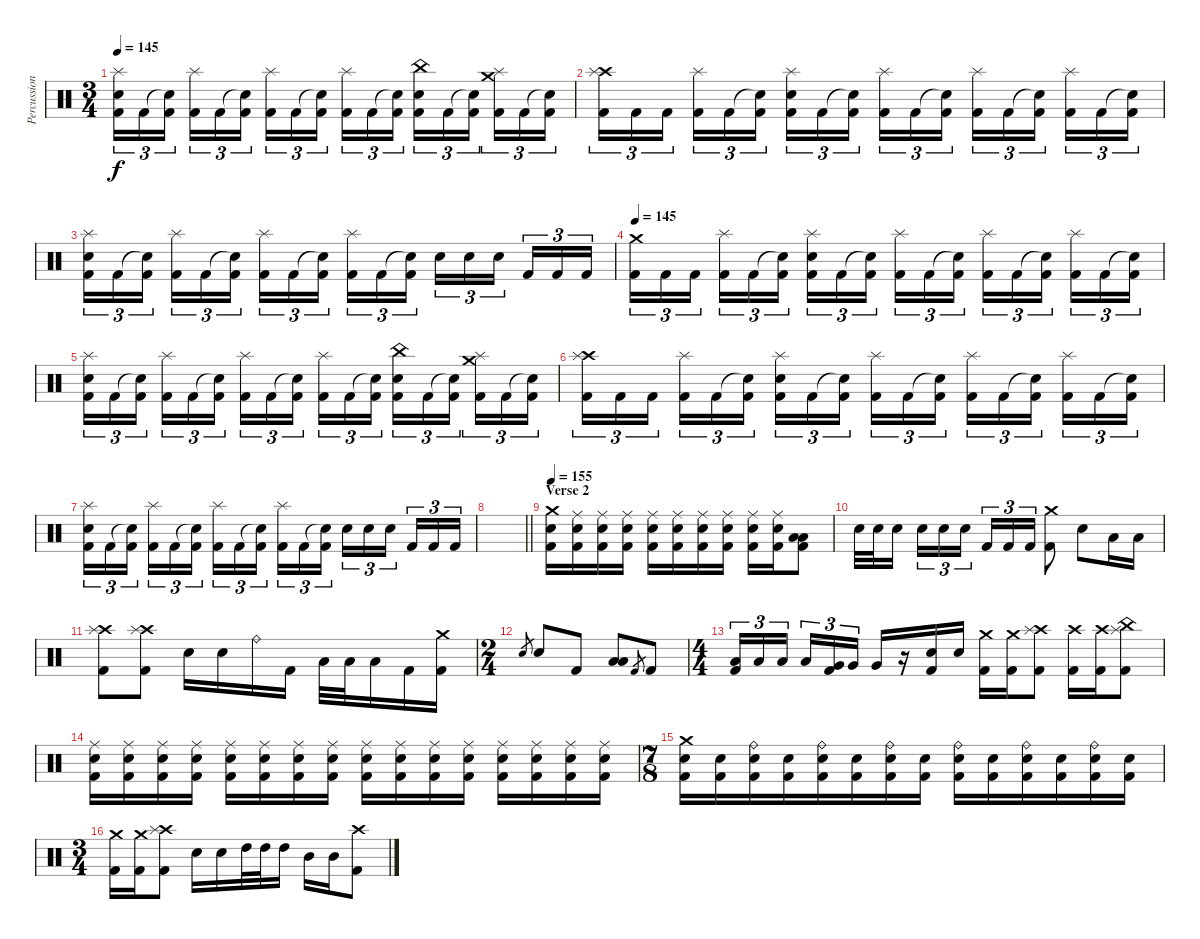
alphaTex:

\track ("Percussion" "Percussion") {instrument percussion}
\staff {score}
\articulation defaults
\ts (3 4)
\tempo 145
\clef neutral
\ks c
("Splash (hit)" "Electric Snare (hit)" "Kick (hit) 2").16{tu (3 2) dy f} "Kick (hit) 2".16{tu (3 2)} ("Snare (hit)"{t} "Kick (hit) 2").16{tu (3 2)} ("Splash (hit)" "Kick (hit) 2").16{tu (3 2)} "Kick (hit) 2".16{tu (3 2)} ("Snare (hit)"{t} "Kick (hit) 2").16{tu (3 2)} ("Splash (hit)" "Kick (hit) 2").16{tu (3 2)} "Kick (hit) 2".16{tu (3 2)} ("Snare (hit)"{t} "Kick (hit) 2").16{tu (3 2)} ("Splash (hit)" "Kick (hit) 2").16{tu (3 2)} "Kick (hit) 2".16{tu (3 2)} ("Snare (hit)"{t} "Kick (hit) 2").16{tu (3 2)} ("China (hit)" "Electric Snare (hit)" "Kick (hit) 2").16{tu (3 2)} "Kick (hit) 2".16{tu (3 2)} ("Snare (hit)"{t} "Kick (hit) 2").16{tu (3 2)} ("Crash medium (hit)" "Splash (hit)" "Kick (hit) 2").16{tu (3 2)} "Kick (hit) 2".16{tu (3 2)} ("Snare (hit)"{t} "Kick (hit) 2").16{tu (3 2)} |
("Crash high (hit)" "Splash (hit)" "Kick (hit) 2").16{tu (3 2)} "Kick (hit) 2".16{tu (3 2)} "Kick (hit) 2".16{tu (3 2)} ("Splash (hit)" "Kick (hit) 2").16{tu (3 2)} "Kick (hit) 2".16{tu (3 2)} ("Snare (hit)"{t} "Kick (hit) 2").16{tu (3 2)} ("Splash (hit)" "Electric Snare (hit)" "Kick (hit) 2").16{tu (3 2)} "Kick (hit) 2".16{tu (3 2)} ("Snare (hit)"{t} "Kick (hit) 2").16{tu (3 2)} ("Splash (hit)" "Kick (hit) 2").16{tu (3 2)} "Kick (hit) 2".16{tu (3 2)} ("Snare (hit)"{t} "Kick (hit) 2").16{tu (3 2)} ("Splash (hit)" "Kick (hit) 2").16{tu (3 2)} "Kick (hit) 2".16{tu (3 2)} ("Snare (hit)"{t} "Kick (hit) 2").16{tu (3 2)} ("Splash (hit)" "Kick (hit) 2").16{tu (3 2)} "Kick (hit) 2".16{tu (3 2)} ("Snare (hit)"{t} "Kick (hit) 2").16{tu (3 2)} |
("Splash (hit)" "Electric Snare (hit)" "Kick (hit) 2").16{tu (3 2)} "Kick (hit) 2".16{tu (3 2)} ("Snare (hit)"{t} "Kick (hit) 2").16{tu (3 2)} ("Splash (hit)" "Kick (hit) 2").16{tu (3 2)} "Kick (hit) 2".16{tu (3 2)} ("Snare (hit)"{t} "Kick (hit) 2").16{tu (3 2)} ("Splash (hit)" "Kick (hit) 2").16{tu (3 2)} "Kick (hit) 2".16{tu (3 2)} ("Snare (hit)"{t} "Kick (hit) 2").16{tu (3 2)} ("Splash (hit)" "Kick (hit) 2").16{tu (3 2)} "Kick (hit) 2".16{tu (3 2)} ("Snare (hit)"{t} "Kick (hit) 2").16{tu (3 2)} "Electric Snare (hit)".16{tu (3 2)} "Electric Snare (hit)".16{tu (3 2)} "Electric Snare (hit)".16{tu (3 2)} "Kick (hit) 2".16{tu (3 2)} "Kick (hit) 2".16{tu (3 2)} "Kick (hit) 2".16{tu (3 2)} |
\tempo 145
("Crash medium (hit)" "Kick (hit) 2").16{tu (3 2)} "Kick (hit) 2".16{tu (3 2)} "Kick (hit) 2".16{tu (3 2)} ("Splash (hit)" "Kick (hit) 2").16{tu (3 2)} "Kick (hit) 2".16{tu (3 2)} ("Snare (hit)"{t} "Kick (hit) 2").16{tu (3 2)} ("Splash (hit)" "Electric Snare (hit)" "Kick (hit) 2").16{tu (3 2)} "Kick (hit) 2".16{tu (3 2)} ("Snare (hit)"{t} "Kick (hit) 2").16{tu (3 2)} ("Splash (hit)" "Kick (hit) 2").16{tu (3 2)} "Kick (hit) 2".16{tu (3 2)} ("Snare (hit)"{t} "Kick (hit) 2").16{tu (3 2)} ("Splash (hit)" "Kick (hit) 2").16{tu (3 2)} "Kick (hit) 2".16{tu (3 2)} ("Snare (hit)"{t} "Kick (hit) 2").16{tu (3 2)} ("Splash (hit)" "Kick (hit) 2").16{tu (3 2)} "Kick (hit) 2".16{tu (3 2)} ("Snare (hit)"{t} "Kick (hit) 2").16{tu (3 2)} |
("Splash (hit)" "Electric Snare (hit)" "Kick (hit) 2").16{tu (3 2)} "Kick (hit) 2".16{tu (3 2)} ("Snare (hit)"{t} "Kick (hit) 2").16{tu (3 2)} ("Splash (hit)" "Kick (hit) 2").16{tu (3 2)} "Kick (hit) 2".16{tu (3 2)} ("Snare (hit)"{t} "Kick (hit) 2").16{tu (3 2)} ("Splash (hit)" "Kick (hit) 2").16{tu (3 2)} "Kick (hit) 2".16{tu (3 2)} ("Snare (hit)"{t} "Kick (hit) 2").16{tu (3 2)} ("Splash (hit)" "Kick (hit) 2").16{tu (3 2)} "Kick (hit) 2".16{tu (3 2)} ("Snare (hit)"{t} "Kick (hit) 2").16{tu (3 2)} ("China (hit)" "Electric Snare (hit)" "Kick (hit) 2").16{tu (3 2)} "Kick (hit) 2".16{tu (3 2)} ("Snare (hit)"{t} "Kick (hit) 2").16{tu (3 2)} ("Crash medium (hit)" "Splash (hit)" "Kick (hit) 2").16{tu (3 2)} "Kick (hit) 2".16{tu (3 2)} ("Snare (hit)"{t} "Kick (hit) 2").16{tu (3 2)} |
("Crash high (hit)" "Splash (hit)" "Kick (hit) 2").16{tu (3 2)} "Kick (hit) 2".16{tu (3 2)} "Kick (hit) 2".16{tu (3 2)} ("Splash (hit)" "Kick (hit) 2").16{tu (3 2)} "Kick (hit) 2".16{tu (3 2)} ("Snare (hit)"{t} "Kick (hit) 2").16{tu (3 2)} ("Splash (hit)" "Electric Snare (hit)" "Kick (hit) 2").16{tu (3 2)} "Kick (hit) 2".16{tu (3 2)} ("Snare (hit)"{t} "Kick (hit) 2").16{tu (3 2)} ("Splash (hit)" "Kick (hit) 2").16{tu (3 2)} "Kick (hit) 2".16{tu (3 2)} ("Snare (hit)"{t} "Kick (hit) 2").16{tu (3 2)} ("Splash (hit)" "Kick (hit) 2").16{tu (3 2)} "Kick (hit) 2".16{tu (3 2)} ("Snare (hit)"{t} "Kick (hit) 2").16{tu (3 2)} ("Splash (hit)" "Kick (hit) 2").16{tu (3 2)} "Kick (hit) 2".16{tu (3 2)} ("Snare (hit)"{t} "Kick (hit) 2").16{tu (3 2)} |
("Splash (hit)" "Electric Snare (hit)" "Kick (hit) 2").16{tu (3 2)} "Kick (hit) 2".16{tu (3 2)} ("Snare (hit)"{t} "Kick (hit) 2").16{tu (3 2)} ("Splash (hit)" "Kick (hit) 2").16{tu (3 2)} "Kick (hit) 2".16{tu (3 2)} ("Snare (hit)"{t} "Kick (hit) 2").16{tu (3 2)} ("Splash (hit)" "Kick (hit) 2").16{tu (3 2)} "Kick (hit) 2".16{tu (3 2)} ("Snare (hit)"{t} "Kick (hit) 2").16{tu (3 2)} ("Splash (hit)" "Kick (hit) 2").16{tu (3 2)} "Kick (hit) 2".16{tu (3 2)} ("Snare (hit)"{t} "Kick (hit) 2").16{tu (3 2)} "Electric Snare (hit)".16{tu (3 2)} "Electric Snare (hit)".16{tu (3 2)} "Electric Snare (hit)".16{tu (3 2)} "Kick (hit) 2".16{tu (3 2)} "Kick (hit) 2".16{tu (3 2)} "Kick (hit) 2".16{tu (3 2)} |
\barLineRight lightlight
|
\section ("" "Verse 2")
\tempo 155
("Crash medium (hit)" "Electric Snare (hit)" "Kick (hit) 2").16 ("Ride (middle)" "Electric Snare (hit)" "Kick (hit) 2").16 ("Ride (middle)" "Electric Snare (hit)" "Kick (hit) 2").16 ("Ride (middle)" "Electric Snare (hit)" "Kick (hit) 2").16 ("Ride (middle)" "Electric Snare (hit)" "Kick (hit) 2").16 ("Ride (middle)" "Electric Snare (hit)" "Kick (hit) 2").16 ("Ride (middle)" "Electric Snare (hit)" "Kick (hit) 2").16 ("Ride (middle)" "Electric Snare (hit)" "Kick (hit) 2").16 ("Ride (middle)" "Electric Snare (hit)" "Kick (hit) 2").16 ("Ride (middle)" "Electric Snare (hit)" "Kick (hit) 2").16 ("Low Tom (hit)" "Low Floor Tom (hit)" "Kick (hit) 2").8 |
"Electric Snare (hit)".32 "Electric Snare (hit)".32 "Electric Snare (hit)".16 "Electric Snare (hit)".16{tu (3 2)} "Electric Snare (hit)".16{tu (3 2)} "Electric Snare (hit)".16{tu (3 2)} "Kick (hit) 2".16{tu (3 2)} "Kick (hit) 2".16{tu (3 2)} "Kick (hit) 2".16{tu (3 2)} ("Crash medium (hit)" "Kick (hit) 2").8 "Electric Snare (hit)".8 "Low Tom (hit)".16 "Low Tom (hit)".16 |
("Crash high (hit)" "Splash (hit)" "Kick (hit) 2").8 ("Crash high (hit)" "Splash (hit)" "Kick (hit) 2").8 "Electric Snare (hit)".16 "Electric Snare (hit)".16 "Ride (bell)".16 "Kick (hit) 2".16 "Low Tom (hit)".32 "Low Tom (hit)".32 "Low Tom (hit)".16 "Kick (hit) 2".16 ("Crash medium (hit)" "Kick (hit) 2").16 |
\ts (2 4)
"Electric Snare (hit)".8{gr} "Electric Snare (hit)".8 "Kick (hit) 2".8 ("Low Tom (hit)" "Low Floor Tom (hit)").8 "Kick (hit) 2".8{gr} "Kick (hit) 2".8 |
\ts (4 4)
("Low Tom (hit)" "Kick (hit) 2").16{tu (3 2)} "Low Tom (hit)".16{tu (3 2)} "Low Tom (hit)".16{tu (3 2)} "Low Tom (hit)".16{tu (3 2)} ("Very Low Tom (hit)" "Kick (hit) 2").16{tu (3 2)} "Very Low Tom (hit)".16{tu (3 2)} "Very Low Tom (hit)".16 r.16 ("Electric Snare (hit)" "Kick (hit) 2").16 "Electric Snare (hit)".16 ("Crash medium (hit)" "Kick (hit) 2").16 ("Crash medium (hit)" "Kick (hit) 2").16 ("Crash high (hit)" "Splash (hit)" "Kick (hit) 2").8 ("Crash high (hit)" "Kick (hit) 2").16 ("Crash high (hit)" "Kick (hit) 2").16 ("China (hit)" "Splash (hit)" "Kick (hit) 2").8 |
("Ride (middle)" "Electric Snare (hit)" "Kick (hit) 2").16 ("Ride (middle)" "Electric Snare (hit)" "Kick (hit) 2").16 ("Ride (middle)" "Electric Snare (hit)" "Kick (hit) 2").16 ("Ride (middle)" "Electric Snare (hit)" "Kick (hit) 2").16 ("Ride (middle)" "Electric Snare (hit)" "Kick (hit) 2").16 ("Ride (middle)" "Electric Snare (hit)" "Kick (hit) 2").16 ("Ride (middle)" "Electric Snare (hit)" "Kick (hit) 2").16 ("Ride (middle)" "Electric Snare (hit)" "Kick (hit) 2").16 ("Ride (middle)" "Electric Snare (hit)" "Kick (hit) 2").16 ("Ride (middle)" "Electric Snare (hit)" "Kick (hit) 2").16 ("Ride (middle)" "Electric Snare (hit)" "Kick (hit) 2").16 ("Ride (middle)" "Electric Snare (hit)" "Kick (hit) 2").16 ("Ride (middle)" "Electric Snare (hit)" "Kick (hit) 2").16 ("Ride (middle)" "Electric Snare (hit)" "Kick (hit) 2").16 ("Ride (middle)" "Electric Snare (hit)" "Kick (hit) 2").16 ("Ride (middle)" "Electric Snare (hit)" "Kick (hit) 2").16 |
\ts (7 8)
("Crash medium (hit)" "Electric Snare (hit)" "Kick (hit) 2").16 ("Electric Snare (hit)" "Kick (hit) 2").16 ("Ride (bell)" "Electric Snare (hit)" "Kick (hit) 2").16 ("Electric Snare (hit)" "Kick (hit) 2").16 ("Ride (bell)" "Electric Snare (hit)" "Kick (hit) 2").16 ("Electric Snare (hit)" "Kick (hit) 2").16 ("Ride (bell)" "Electric Snare (hit)" "Kick (hit) 2").16 ("Electric Snare (hit)" "Kick (hit) 2").16 ("Ride (bell)" "Electric Snare (hit)" "Kick (hit) 2").16 ("Electric Snare (hit)" "Kick (hit) 2").16 ("Ride (bell)" "Electric Snare (hit)" "Kick (hit) 2").16 ("Electric Snare (hit)" "Kick (hit) 2").16 ("Ride (bell)" "Electric Snare (hit)" "Kick (hit) 2").16 ("Electric Snare (hit)" "Kick (hit) 2").16 |
\ts (3 4)
("Crash medium (hit)" "Kick (hit) 2").16 ("Crash medium (hit)" "Kick (hit) 2").16 ("Crash high (hit)" "Splash (hit)" "Kick (hit) 2").8 "Electric Snare (hit)".16 "Electric Snare (hit)".16 "High Tom (hit)".32 "High Tom (hit)".32 "High Tom (hit)".16 "Mid Tom (hit)".16 "Mid Tom (hit)".16 ("Crash high (hit)" "Kick (hit) 2").8
